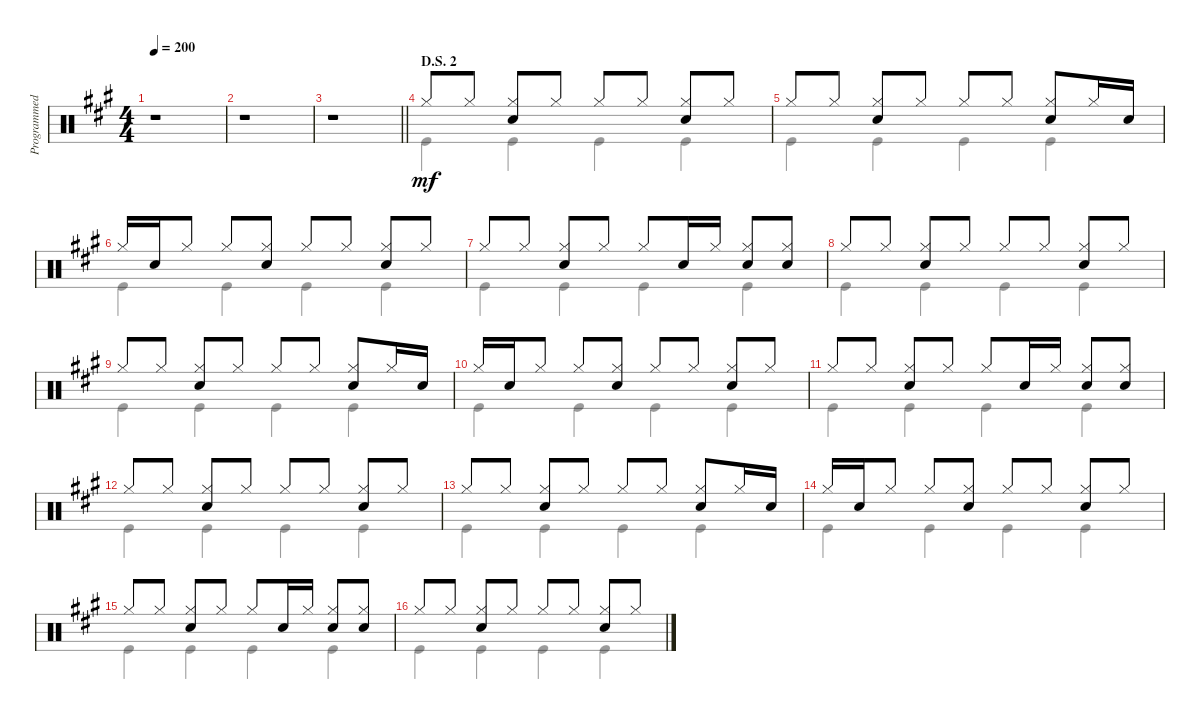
\track ("Programmed Drums" "Programmed") {instrument percussion}
\staff {score}
\articulation defaults
\voice
\ts (4 4)
\tempo 200
\clef neutral
\ks a
r.1{dy mf} |
r.1 |
\barLineRight lightlight
r.1 |
\section ("" "D.S. 2")
"Hi-Hat (closed)".8 "Hi-Hat (closed)".8 ("Hi-Hat (closed)" "Snare (hit) 2").8 "Hi-Hat (closed)".8 "Hi-Hat (closed)".8 "Hi-Hat (closed)".8 ("Hi-Hat (closed)" "Snare (hit) 2").8 "Hi-Hat (closed)".8 |
"Hi-Hat (closed)".8 "Hi-Hat (closed)".8 ("Hi-Hat (closed)" "Snare (hit) 2").8 "Hi-Hat (closed)".8 "Hi-Hat (closed)".8 "Hi-Hat (closed)".8 ("Hi-Hat (closed)" "Snare (hit) 2").8 "Hi-Hat (closed)".16 "Snare (hit) 2".16 |
"Hi-Hat (closed)".16 "Snare (hit) 2".16 "Hi-Hat (closed)".8 "Hi-Hat (closed)".8 ("Hi-Hat (closed)" "Snare (hit) 2").8 "Hi-Hat (closed)".8 "Hi-Hat (closed)".8 ("Hi-Hat (closed)" "Snare (hit) 2").8 "Hi-Hat (closed)".8 |
"Hi-Hat (closed)".8 "Hi-Hat (closed)".8 ("Hi-Hat (closed)" "Snare (hit) 2").8 "Hi-Hat (closed)".8 "Hi-Hat (closed)".8 "Snare (hit) 2".16 "Hi-Hat (closed)".16 ("Hi-Hat (closed)" "Snare (hit) 2").8 ("Hi-Hat (closed)" "Snare (hit) 2").8 |
"Hi-Hat (closed)".8 "Hi-Hat (closed)".8 ("Hi-Hat (closed)" "Snare (hit) 2").8 "Hi-Hat (closed)".8 "Hi-Hat (closed)".8 "Hi-Hat (closed)".8 ("Hi-Hat (closed)" "Snare (hit) 2").8 "Hi-Hat (closed)".8 |
"Hi-Hat (closed)".8 "Hi-Hat (closed)".8 ("Hi-Hat (closed)" "Snare (hit) 2").8 "Hi-Hat (closed)".8 "Hi-Hat (closed)".8 "Hi-Hat (closed)".8 ("Hi-Hat (closed)" "Snare (hit) 2").8 "Hi-Hat (closed)".16 "Snare (hit) 2".16 |
"Hi-Hat (closed)".16 "Snare (hit) 2".16 "Hi-Hat (closed)".8 "Hi-Hat (closed)".8 ("Hi-Hat (closed)" "Snare (hit) 2").8 "Hi-Hat (closed)".8 "Hi-Hat (closed)".8 ("Hi-Hat (closed)" "Snare (hit) 2").8 "Hi-Hat (closed)".8 |
"Hi-Hat (closed)".8 "Hi-Hat (closed)".8 ("Hi-Hat (closed)" "Snare (hit) 2").8 "Hi-Hat (closed)".8 "Hi-Hat (closed)".8 "Snare (hit) 2".16 "Hi-Hat (closed)".16 ("Hi-Hat (closed)" "Snare (hit) 2").8 ("Hi-Hat (closed)" "Snare (hit) 2").8 |
"Hi-Hat (closed)".8 "Hi-Hat (closed)".8 ("Hi-Hat (closed)" "Snare (hit) 2").8 "Hi-Hat (closed)".8 "Hi-Hat (closed)".8 "Hi-Hat (closed)".8 ("Hi-Hat (closed)" "Snare (hit) 2").8 "Hi-Hat (closed)".8 |
"Hi-Hat (closed)".8 "Hi-Hat (closed)".8 ("Hi-Hat (closed)" "Snare (hit) 2").8 "Hi-Hat (closed)".8 "Hi-Hat (closed)".8 "Hi-Hat (closed)".8 ("Hi-Hat (closed)" "Snare (hit) 2").8 "Hi-Hat (closed)".16 "Snare (hit) 2".16 |
"Hi-Hat (closed)".16 "Snare (hit) 2".16 "Hi-Hat (closed)".8 "Hi-Hat (closed)".8 ("Hi-Hat (closed)" "Snare (hit) 2").8 "Hi-Hat (closed)".8 "Hi-Hat (closed)".8 ("Hi-Hat (closed)" "Snare (hit) 2").8 "Hi-Hat (closed)".8 |
"Hi-Hat (closed)".8 "Hi-Hat (closed)".8 ("Hi-Hat (closed)" "Snare (hit) 2").8 "Hi-Hat (closed)".8 "Hi-Hat (closed)".8 "Snare (hit) 2".16 "Hi-Hat (closed)".16 ("Hi-Hat (closed)" "Snare (hit) 2").8 ("Hi-Hat (closed)" "Snare (hit) 2").8 |
"Hi-Hat (closed)".8 "Hi-Hat (closed)".8 ("Hi-Hat (closed)" "Snare (hit) 2").8 "Hi-Hat (closed)".8 "Hi-Hat (closed)".8 "Hi-Hat (closed)".8 ("Hi-Hat (closed)" "Snare (hit) 2").8 "Hi-Hat (closed)".8
\voice
\clef neutral
\ottava regular
\simile none
\ks a
|
|
\barLineRight lightlight
|
"Kick (hit)".4 "Kick (hit)".4 "Kick (hit)".4 "Kick (hit)".4 |
"Kick (hit)".4 "Kick (hit)".4 "Kick (hit)".4 "Kick (hit)".4 |
"Kick (hit)".4 "Kick (hit)".4 "Kick (hit)".4 "Kick (hit)".4 |
"Kick (hit)".4 "Kick (hit)".4 "Kick (hit)".4 "Kick (hit)".4 |
"Kick (hit)".4 "Kick (hit)".4 "Kick (hit)".4 "Kick (hit)".4 |
"Kick (hit)".4 "Kick (hit)".4 "Kick (hit)".4 "Kick (hit)".4 |
"Kick (hit)".4 "Kick (hit)".4 "Kick (hit)".4 "Kick (hit)".4 |
"Kick (hit)".4 "Kick (hit)".4 "Kick (hit)".4 "Kick (hit)".4 |
"Kick (hit)".4 "Kick (hit)".4 "Kick (hit)".4 "Kick (hit)".4 |
"Kick (hit)".4 "Kick (hit)".4 "Kick (hit)".4 "Kick (hit)".4 |
"Kick (hit)".4 "Kick (hit)".4 "Kick (hit)".4 "Kick (hit)".4 |
"Kick (hit)".4 "Kick (hit)".4 "Kick (hit)".4 "Kick (hit)".4 |
"Kick (hit)".4 "Kick (hit)".4 "Kick (hit)".4 "Kick (hit)".4
